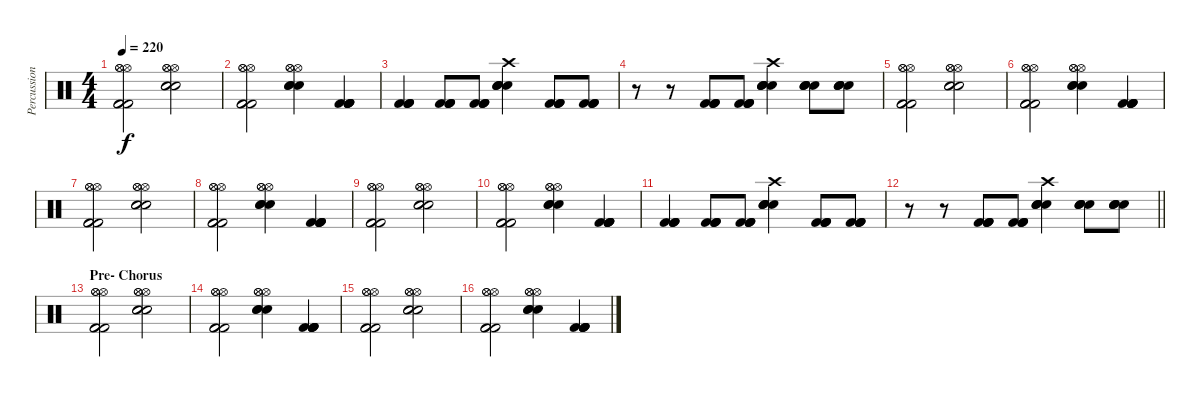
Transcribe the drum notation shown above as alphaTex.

\track ("Percussion" "Percussion") {instrument percussion}
\staff {score}
\articulation defaults
\ts (4 4)
\tempo 220
\clef neutral
\ks c
("Hi-Hat (open)" "Hi-Hat (open)" "Hi-Hat (open)" "Kick (hit) 2" "Kick (hit) 2" "Kick (hit) 2").2{dy f} ("Hi-Hat (open)" "Hi-Hat (open)" "Hi-Hat (open)" "Snare (hit) 2" "Snare (hit) 2" "Snare (hit) 2").2 |
("Hi-Hat (open)" "Hi-Hat (open)" "Hi-Hat (open)" "Kick (hit) 2" "Kick (hit) 2" "Kick (hit) 2").2 ("Hi-Hat (open)" "Hi-Hat (open)" "Hi-Hat (open)" "Snare (hit) 2" "Snare (hit) 2" "Snare (hit) 2").4 ("Kick (hit) 2" "Kick (hit) 2" "Kick (hit) 2" "Kick (hit) 2" "Kick (hit) 2").4 |
("Kick (hit) 2" "Kick (hit) 2" "Kick (hit) 2" "Kick (hit) 2").4 ("Kick (hit) 2" "Kick (hit) 2" "Kick (hit) 2" "Kick (hit) 2").8 ("Kick (hit) 2" "Kick (hit) 2" "Kick (hit) 2" "Kick (hit) 2").8 ("Crash high (hit)" "Snare (hit) 2" "Snare (hit) 2" "Snare (hit) 2" "Snare (hit) 2").4 ("Kick (hit) 2" "Kick (hit) 2" "Kick (hit) 2" "Kick (hit) 2").8 ("Kick (hit) 2" "Kick (hit) 2" "Kick (hit) 2" "Kick (hit) 2").8 |
r.8 r.8 ("Kick (hit) 2" "Kick (hit) 2" "Kick (hit) 2" "Kick (hit) 2").8 ("Kick (hit) 2" "Kick (hit) 2" "Kick (hit) 2" "Kick (hit) 2").8 ("Crash high (hit)" "Snare (hit) 2" "Snare (hit) 2" "Snare (hit) 2" "Snare (hit) 2").4 ("Snare (hit) 2" "Snare (hit) 2" "Snare (hit) 2" "Snare (hit) 2").8 ("Snare (hit) 2" "Snare (hit) 2" "Snare (hit) 2" "Snare (hit) 2").8 |
("Hi-Hat (open)" "Hi-Hat (open)" "Hi-Hat (open)" "Kick (hit) 2" "Kick (hit) 2" "Kick (hit) 2").2 ("Hi-Hat (open)" "Hi-Hat (open)" "Hi-Hat (open)" "Snare (hit) 2" "Snare (hit) 2" "Snare (hit) 2").2 |
("Hi-Hat (open)" "Hi-Hat (open)" "Hi-Hat (open)" "Kick (hit) 2" "Kick (hit) 2" "Kick (hit) 2").2 ("Hi-Hat (open)" "Hi-Hat (open)" "Hi-Hat (open)" "Snare (hit) 2" "Snare (hit) 2" "Snare (hit) 2").4 ("Kick (hit) 2" "Kick (hit) 2" "Kick (hit) 2" "Kick (hit) 2" "Kick (hit) 2").4 |
("Hi-Hat (open)" "Hi-Hat (open)" "Hi-Hat (open)" "Kick (hit) 2" "Kick (hit) 2" "Kick (hit) 2").2 ("Hi-Hat (open)" "Hi-Hat (open)" "Hi-Hat (open)" "Snare (hit) 2" "Snare (hit) 2" "Snare (hit) 2").2 |
("Hi-Hat (open)" "Hi-Hat (open)" "Hi-Hat (open)" "Kick (hit) 2" "Kick (hit) 2" "Kick (hit) 2").2 ("Hi-Hat (open)" "Hi-Hat (open)" "Hi-Hat (open)" "Snare (hit) 2" "Snare (hit) 2" "Snare (hit) 2").4 ("Kick (hit) 2" "Kick (hit) 2" "Kick (hit) 2" "Kick (hit) 2" "Kick (hit) 2").4 |
("Hi-Hat (open)" "Hi-Hat (open)" "Hi-Hat (open)" "Kick (hit) 2" "Kick (hit) 2" "Kick (hit) 2").2 ("Hi-Hat (open)" "Hi-Hat (open)" "Hi-Hat (open)" "Snare (hit) 2" "Snare (hit) 2" "Snare (hit) 2").2 |
("Hi-Hat (open)" "Hi-Hat (open)" "Hi-Hat (open)" "Kick (hit) 2" "Kick (hit) 2" "Kick (hit) 2").2 ("Hi-Hat (open)" "Hi-Hat (open)" "Hi-Hat (open)" "Snare (hit) 2" "Snare (hit) 2" "Snare (hit) 2").4 ("Kick (hit) 2" "Kick (hit) 2" "Kick (hit) 2" "Kick (hit) 2" "Kick (hit) 2").4 |
("Kick (hit) 2" "Kick (hit) 2" "Kick (hit) 2" "Kick (hit) 2").4 ("Kick (hit) 2" "Kick (hit) 2" "Kick (hit) 2" "Kick (hit) 2").8 ("Kick (hit) 2" "Kick (hit) 2" "Kick (hit) 2" "Kick (hit) 2").8 ("Crash high (hit)" "Snare (hit) 2" "Snare (hit) 2" "Snare (hit) 2" "Snare (hit) 2").4 ("Kick (hit) 2" "Kick (hit) 2" "Kick (hit) 2" "Kick (hit) 2").8 ("Kick (hit) 2" "Kick (hit) 2" "Kick (hit) 2" "Kick (hit) 2").8 |
\barLineRight lightlight
r.8 r.8 ("Kick (hit) 2" "Kick (hit) 2" "Kick (hit) 2" "Kick (hit) 2").8 ("Kick (hit) 2" "Kick (hit) 2" "Kick (hit) 2" "Kick (hit) 2").8 ("Crash high (hit)" "Snare (hit) 2" "Snare (hit) 2" "Snare (hit) 2" "Snare (hit) 2").4 ("Snare (hit) 2" "Snare (hit) 2" "Snare (hit) 2" "Snare (hit) 2").8 ("Snare (hit) 2" "Snare (hit) 2" "Snare (hit) 2" "Snare (hit) 2").8 |
\section ("" "Pre- Chorus")
("Hi-Hat (open)" "Hi-Hat (open)" "Hi-Hat (open)" "Kick (hit) 2" "Kick (hit) 2" "Kick (hit) 2").2 ("Hi-Hat (open)" "Hi-Hat (open)" "Hi-Hat (open)" "Snare (hit) 2" "Snare (hit) 2" "Snare (hit) 2").2 |
("Hi-Hat (open)" "Hi-Hat (open)" "Hi-Hat (open)" "Kick (hit) 2" "Kick (hit) 2" "Kick (hit) 2").2 ("Hi-Hat (open)" "Hi-Hat (open)" "Hi-Hat (open)" "Snare (hit) 2" "Snare (hit) 2" "Snare (hit) 2").4 ("Kick (hit) 2" "Kick (hit) 2" "Kick (hit) 2" "Kick (hit) 2" "Kick (hit) 2").4 |
("Hi-Hat (open)" "Hi-Hat (open)" "Hi-Hat (open)" "Kick (hit) 2" "Kick (hit) 2" "Kick (hit) 2").2 ("Hi-Hat (open)" "Hi-Hat (open)" "Hi-Hat (open)" "Snare (hit) 2" "Snare (hit) 2" "Snare (hit) 2").2 |
("Hi-Hat (open)" "Hi-Hat (open)" "Hi-Hat (open)" "Kick (hit) 2" "Kick (hit) 2" "Kick (hit) 2").2 ("Hi-Hat (open)" "Hi-Hat (open)" "Hi-Hat (open)" "Snare (hit) 2" "Snare (hit) 2" "Snare (hit) 2").4 ("Kick (hit) 2" "Kick (hit) 2" "Kick (hit) 2" "Kick (hit) 2" "Kick (hit) 2").4
